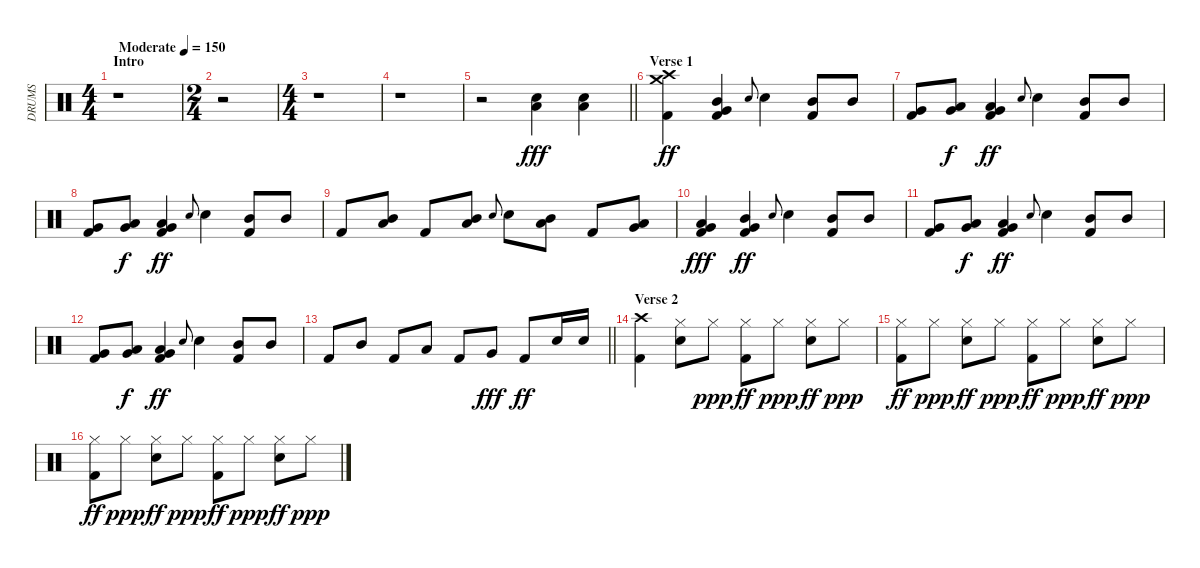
\track ("DRUMS" "DRUMS") {instrument percussion}
\staff {score}
\articulation defaults
\ts (4 4)
\section ("" "Intro")
\tempo (150 "Moderate")
\clef neutral
\ks c
r.1{dy fff} |
\ts (2 4)
r.2 |
\ts (4 4)
r.1 |
r.1 |
\barLineRight lightlight
r.2 ("Snare (hit) 2" "Low Floor Tom (hit)").4 ("Snare (hit) 2" "Low Floor Tom (hit)").4 |
\section ("" "Verse 1")
("Crash medium (hit)" "Crash high (hit)" "Kick (hit) 2").4{dy ff} ("Mid Tom (hit)" "Very Low Tom (hit)" "Kick (hit) 2").4 "Electric Snare (hit)".8{gr onbeat} "Snare (hit) 2".4 ("Mid Tom (hit)" "Kick (hit) 2").8 "Mid Tom (hit)".8 |
("Very Low Tom (hit)" "Kick (hit) 2").8 ("Low Tom (hit)" "Very Low Tom (hit)").8{dy f} ("Low Tom (hit)" "Very Low Tom (hit)" "Kick (hit) 2").4{dy ff} "Electric Snare (hit)".8{gr onbeat} "Snare (hit) 2".4 ("Mid Tom (hit)" "Kick (hit) 2").8 "Mid Tom (hit)".8 |
("Very Low Tom (hit)" "Kick (hit) 2").8 ("Low Tom (hit)" "Very Low Tom (hit)").8{dy f} ("Low Tom (hit)" "Very Low Tom (hit)" "Kick (hit) 2").4{dy ff} "Electric Snare (hit)".8{gr onbeat} "Snare (hit) 2".4 ("Mid Tom (hit)" "Kick (hit) 2").8 "Mid Tom (hit)".8 |
"Kick (hit) 2".8 ("Mid Tom (hit)" "Low Tom (hit)").8 "Kick (hit) 2".8 ("Mid Tom (hit)" "Low Tom (hit)").8 "Electric Snare (hit)".8{gr onbeat} "Snare (hit) 2".8 ("Mid Tom (hit)" "Low Tom (hit)").8 "Kick (hit) 2".8 ("Low Tom (hit)" "Very Low Tom (hit)").8 |
("Low Tom (hit)" "Very Low Tom (hit)" "Kick (hit) 2").4{dy fff} ("Mid Tom (hit)" "Very Low Tom (hit)" "Kick (hit) 2").4{dy ff} "Electric Snare (hit)".8{gr onbeat} "Snare (hit) 2".4 ("Mid Tom (hit)" "Kick (hit) 2").8 "Mid Tom (hit)".8 |
("Very Low Tom (hit)" "Kick (hit) 2").8 ("Low Tom (hit)" "Very Low Tom (hit)").8{dy f} ("Low Tom (hit)" "Very Low Tom (hit)" "Kick (hit) 2").4{dy ff} "Electric Snare (hit)".8{gr onbeat} "Snare (hit) 2".4 ("Mid Tom (hit)" "Kick (hit) 2").8 "Mid Tom (hit)".8 |
("Very Low Tom (hit)" "Kick (hit) 2").8 ("Low Tom (hit)" "Very Low Tom (hit)").8{dy f} ("Low Tom (hit)" "Very Low Tom (hit)" "Kick (hit) 2").4{dy ff} "Electric Snare (hit)".8{gr onbeat} "Snare (hit) 2".4 ("Mid Tom (hit)" "Kick (hit) 2").8 "Mid Tom (hit)".8 |
\barLineRight lightlight "Kick (hit) 2".8 "Mid Tom (hit)".8 "Kick (hit) 2".8 "Low Tom (hit)".8 "Kick (hit) 2".8 "Very Low Tom (hit)".8{dy fff} "Kick (hit) 2".8{dy ff} "Electric Snare (hit)".16 "Snare (hit) 2".16
|
\section ("" "Verse 2")
("Crash high (hit)" "Kick (hit) 2").4 ("Hi-Hat (closed)" "Snare (hit) 2").8 "Hi-Hat (closed)".8{dy ppp} ("Hi-Hat (closed)" "Kick (hit) 2").8{dy ff} "Hi-Hat (closed)".8{dy ppp} ("Hi-Hat (closed)" "Snare (hit) 2").8{dy ff} "Hi-Hat (closed)".8{dy ppp} |
("Hi-Hat (closed)" "Kick (hit) 2").8{dy ff} "Hi-Hat (closed)".8{dy ppp} ("Hi-Hat (closed)" "Snare (hit) 2").8{dy ff} "Hi-Hat (closed)".8{dy ppp} ("Hi-Hat (closed)" "Kick (hit) 2").8{dy ff} "Hi-Hat (closed)".8{dy ppp} ("Hi-Hat (closed)" "Snare (hit) 2").8{dy ff} "Hi-Hat (closed)".8{dy ppp} |
("Hi-Hat (closed)" "Kick (hit) 2").8{dy ff} "Hi-Hat (closed)".8{dy ppp} ("Hi-Hat (closed)" "Snare (hit) 2").8{dy ff} "Hi-Hat (closed)".8{dy ppp} ("Hi-Hat (closed)" "Kick (hit) 2").8{dy ff} "Hi-Hat (closed)".8{dy ppp} ("Hi-Hat (closed)" "Snare (hit) 2").8{dy ff} "Hi-Hat (closed)".8{dy ppp}
